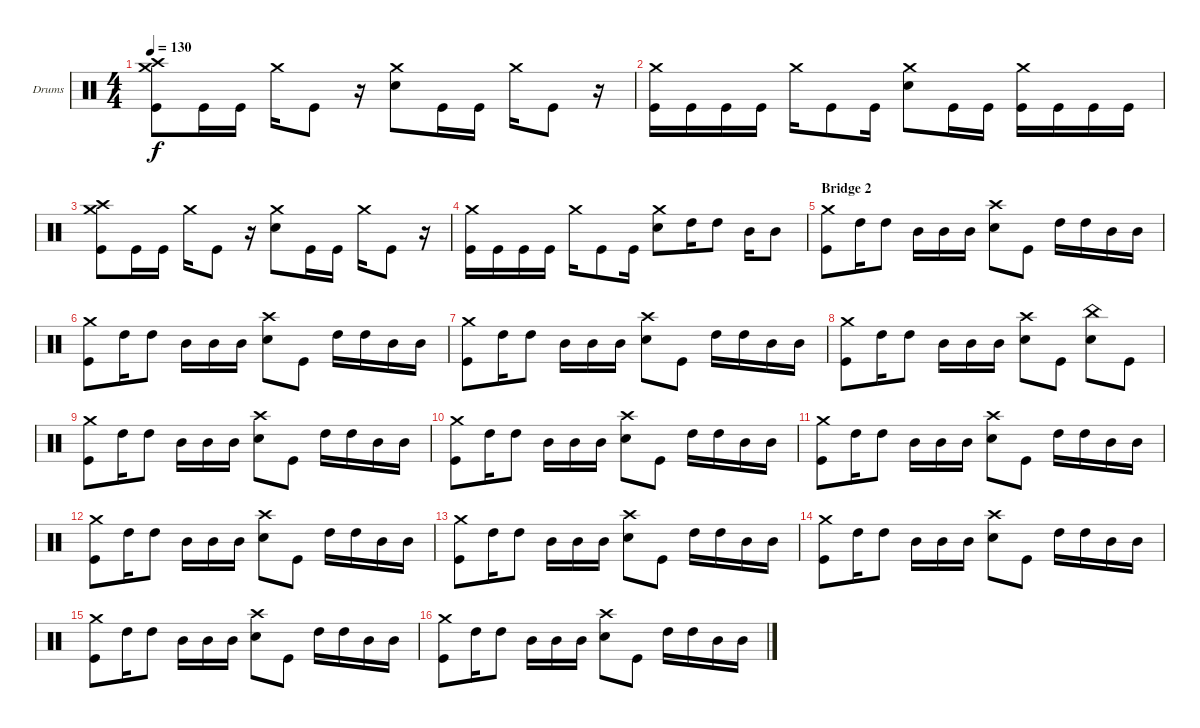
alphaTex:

\bracketExtendMode groupsimilarinstruments
\firstSystemTrackNameOrientation horizontal
\otherSystemsTrackNameOrientation horizontal
\track ("Drumkit" "Drums") {instrument percussion}
\staff {score}
\articulation defaults
\ts (4 4)
\tempo 130
\clef neutral
\ks c
("Kick (hit)" "Crash high (hit)" "Crash medium (hit)").8{dy f} "Kick (hit)".16 "Kick (hit)".16 "Crash medium (hit)".16 "Kick (hit)".8 r.16 ("Crash medium (hit)" "Snare (hit) 2").8 "Kick (hit)".16 "Kick (hit)".16 "Crash medium (hit)".16 "Kick (hit)".8 r.16 |
("Kick (hit)" "Crash medium (hit)").16 "Kick (hit)".16 "Kick (hit)".16 "Kick (hit)".16 "Crash medium (hit)".16 "Kick (hit)".8 "Kick (hit)".16 ("Snare (hit) 2" "Crash medium (hit)").8 "Kick (hit)".16 "Kick (hit)".16 ("Kick (hit)" "Crash medium (hit)").16 "Kick (hit)".16 "Kick (hit)".16 "Kick (hit)".16 |
("Kick (hit)" "Crash high (hit)" "Crash medium (hit)").8 "Kick (hit)".16 "Kick (hit)".16 "Crash medium (hit)".16 "Kick (hit)".8 r.16 ("Crash medium (hit)" "Snare (hit) 2").8 "Kick (hit)".16 "Kick (hit)".16 "Crash medium (hit)".16 "Kick (hit)".8 r.16 |
("Kick (hit)" "Crash medium (hit)").16 "Kick (hit)".16 "Kick (hit)".16 "Kick (hit)".16 "Crash medium (hit)".16 "Kick (hit)".8 "Kick (hit)".16 ("Snare (hit) 2" "Crash medium (hit)").8 "High Tom (hit)".16 "High Tom (hit)".8 "Mid Tom (hit)".16 "Mid Tom (hit)".8 |
\section ("" "Bridge 2")
("Kick (hit)" "Crash medium (hit)").8 "High Tom (hit)".16 "High Tom (hit)".8 "Mid Tom (hit)".16 "Mid Tom (hit)".16 "Mid Tom (hit)".16 ("Snare (hit) 2" "Crash high (hit)").8 "Kick (hit)".8 "High Tom (hit)".16 "High Tom (hit)".16 "Mid Tom (hit)".16 "Mid Tom (hit)".16 |
("Kick (hit)" "Crash medium (hit)").8 "High Tom (hit)".16 "High Tom (hit)".8 "Mid Tom (hit)".16 "Mid Tom (hit)".16 "Mid Tom (hit)".16 ("Snare (hit) 2" "Crash high (hit)").8 "Kick (hit)".8 "High Tom (hit)".16 "High Tom (hit)".16 "Mid Tom (hit)".16 "Mid Tom (hit)".16 |
("Kick (hit)" "Crash medium (hit)").8 "High Tom (hit)".16 "High Tom (hit)".8 "Mid Tom (hit)".16 "Mid Tom (hit)".16 "Mid Tom (hit)".16 ("Snare (hit) 2" "Crash high (hit)").8 "Kick (hit)".8 "High Tom (hit)".16 "High Tom (hit)".16 "Mid Tom (hit)".16 "Mid Tom (hit)".16 |
("Kick (hit)" "Crash medium (hit)").8 "High Tom (hit)".16 "High Tom (hit)".8 "Mid Tom (hit)".16 "Mid Tom (hit)".16 "Mid Tom (hit)".16 ("Snare (hit) 2" "Crash high (hit)").8 "Kick (hit)".8 ("Snare (hit) 2" "China (hit)").8 "Kick (hit)".8 |
("Kick (hit)" "Crash medium (hit)").8 "High Tom (hit)".16 "High Tom (hit)".8 "Mid Tom (hit)".16 "Mid Tom (hit)".16 "Mid Tom (hit)".16 ("Snare (hit) 2" "Crash high (hit)").8 "Kick (hit)".8 "High Tom (hit)".16 "High Tom (hit)".16 "Mid Tom (hit)".16 "Mid Tom (hit)".16 |
("Kick (hit)" "Crash medium (hit)").8 "High Tom (hit)".16 "High Tom (hit)".8 "Mid Tom (hit)".16 "Mid Tom (hit)".16 "Mid Tom (hit)".16 ("Snare (hit) 2" "Crash high (hit)").8 "Kick (hit)".8 "High Tom (hit)".16 "High Tom (hit)".16 "Mid Tom (hit)".16 "Mid Tom (hit)".16 |
("Kick (hit)" "Crash medium (hit)").8 "High Tom (hit)".16 "High Tom (hit)".8 "Mid Tom (hit)".16 "Mid Tom (hit)".16 "Mid Tom (hit)".16 ("Snare (hit) 2" "Crash high (hit)").8 "Kick (hit)".8 "High Tom (hit)".16 "High Tom (hit)".16 "Mid Tom (hit)".16 "Mid Tom (hit)".16 |
("Kick (hit)" "Crash medium (hit)").8 "High Tom (hit)".16 "High Tom (hit)".8 "Mid Tom (hit)".16 "Mid Tom (hit)".16 "Mid Tom (hit)".16 ("Snare (hit) 2" "Crash high (hit)").8 "Kick (hit)".8 "High Tom (hit)".16 "High Tom (hit)".16 "Mid Tom (hit)".16 "Mid Tom (hit)".16 |
("Kick (hit)" "Crash medium (hit)").8 "High Tom (hit)".16 "High Tom (hit)".8 "Mid Tom (hit)".16 "Mid Tom (hit)".16 "Mid Tom (hit)".16 ("Snare (hit) 2" "Crash high (hit)").8 "Kick (hit)".8 "High Tom (hit)".16 "High Tom (hit)".16 "Mid Tom (hit)".16 "Mid Tom (hit)".16 |
("Kick (hit)" "Crash medium (hit)").8 "High Tom (hit)".16 "High Tom (hit)".8 "Mid Tom (hit)".16 "Mid Tom (hit)".16 "Mid Tom (hit)".16 ("Snare (hit) 2" "Crash high (hit)").8 "Kick (hit)".8 "High Tom (hit)".16 "High Tom (hit)".16 "Mid Tom (hit)".16 "Mid Tom (hit)".16 |
("Kick (hit)" "Crash medium (hit)").8 "High Tom (hit)".16 "High Tom (hit)".8 "Mid Tom (hit)".16 "Mid Tom (hit)".16 "Mid Tom (hit)".16 ("Snare (hit) 2" "Crash high (hit)").8 "Kick (hit)".8 "High Tom (hit)".16 "High Tom (hit)".16 "Mid Tom (hit)".16 "Mid Tom (hit)".16 |
("Kick (hit)" "Crash medium (hit)").8 "High Tom (hit)".16 "High Tom (hit)".8 "Mid Tom (hit)".16 "Mid Tom (hit)".16 "Mid Tom (hit)".16 ("Snare (hit) 2" "Crash high (hit)").8 "Kick (hit)".8 "High Tom (hit)".16 "High Tom (hit)".16 "Mid Tom (hit)".16 "Mid Tom (hit)".16
